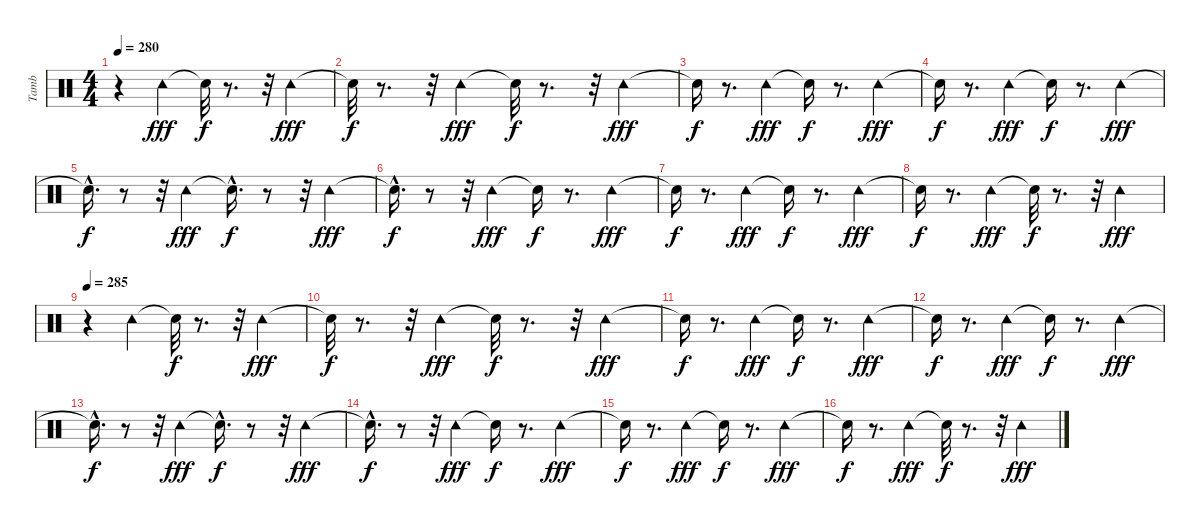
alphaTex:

\track ("Tamb" "Tamb") {instrument percussion}
\staff {score}
\articulation defaults
\ts (4 4)
\tempo 280
\clef neutral
\ks c
r.4{dy fff} "Tambourine (hit)".4 "Snare (hit)"{t}.32{dy f} r.8{d} r.32 "Tambourine (hit)".4{dy fff} |
"Snare (hit)"{t}.32{dy f} r.8{d} r.32 "Tambourine (hit)".4{dy fff} "Snare (hit)"{t}.32{dy f} r.8{d} r.32 "Tambourine (hit)".4{dy fff} |
"Snare (hit)"{t}.16{dy f} r.8{d} "Tambourine (hit)".4{dy fff} "Snare (hit)"{t}.16{dy f} r.8{d} "Tambourine (hit)".4{dy fff} |
"Snare (hit)"{t}.16{dy f} r.8{d} "Tambourine (hit)".4{dy fff} "Snare (hit)"{t}.16{dy f} r.8{d} "Tambourine (hit)".4{dy fff} |
"Snare (hit)"{hac t}.16{d dy f} r.8 r.32 "Tambourine (hit)".4{dy fff} "Snare (hit)"{hac t}.16{d dy f} r.8 r.32 "Tambourine (hit)".4{dy fff} |
"Snare (hit)"{hac t}.16{d dy f} r.8 r.32 "Tambourine (hit)".4{dy fff} "Snare (hit)"{t}.16{dy f} r.8{d} "Tambourine (hit)".4{dy fff} |
"Snare (hit)"{t}.16{dy f} r.8{d} "Tambourine (hit)".4{dy fff} "Snare (hit)"{t}.16{dy f} r.8{d} "Tambourine (hit)".4{dy fff} |
"Snare (hit)"{t}.16{dy f} r.8{d} "Tambourine (hit)".4{dy fff} "Snare (hit)"{t}.32{dy f} r.8{d} r.32 "Tambourine (hit)".4{dy fff} |
\tempo 285
r.4 "Tambourine (hit)".4 "Snare (hit)"{t}.32{dy f} r.8{d} r.32 "Tambourine (hit)".4{dy fff} |
"Snare (hit)"{t}.32{dy f} r.8{d} r.32 "Tambourine (hit)".4{dy fff} "Snare (hit)"{t}.32{dy f} r.8{d} r.32 "Tambourine (hit)".4{dy fff} |
"Snare (hit)"{t}.16{dy f} r.8{d} "Tambourine (hit)".4{dy fff} "Snare (hit)"{t}.16{dy f} r.8{d} "Tambourine (hit)".4{dy fff} |
"Snare (hit)"{t}.16{dy f} r.8{d} "Tambourine (hit)".4{dy fff} "Snare (hit)"{t}.16{dy f} r.8{d} "Tambourine (hit)".4{dy fff} |
"Snare (hit)"{hac t}.16{d dy f} r.8 r.32 "Tambourine (hit)".4{dy fff} "Snare (hit)"{hac t}.16{d dy f} r.8 r.32 "Tambourine (hit)".4{dy fff} |
"Snare (hit)"{hac t}.16{d dy f} r.8 r.32 "Tambourine (hit)".4{dy fff} "Snare (hit)"{t}.16{dy f} r.8{d} "Tambourine (hit)".4{dy fff} |
"Snare (hit)"{t}.16{dy f} r.8{d} "Tambourine (hit)".4{dy fff} "Snare (hit)"{t}.16{dy f} r.8{d} "Tambourine (hit)".4{dy fff} |
"Snare (hit)"{t}.16{dy f} r.8{d} "Tambourine (hit)".4{dy fff} "Snare (hit)"{t}.32{dy f} r.8{d} r.32 "Tambourine (hit)".4{dy fff}
